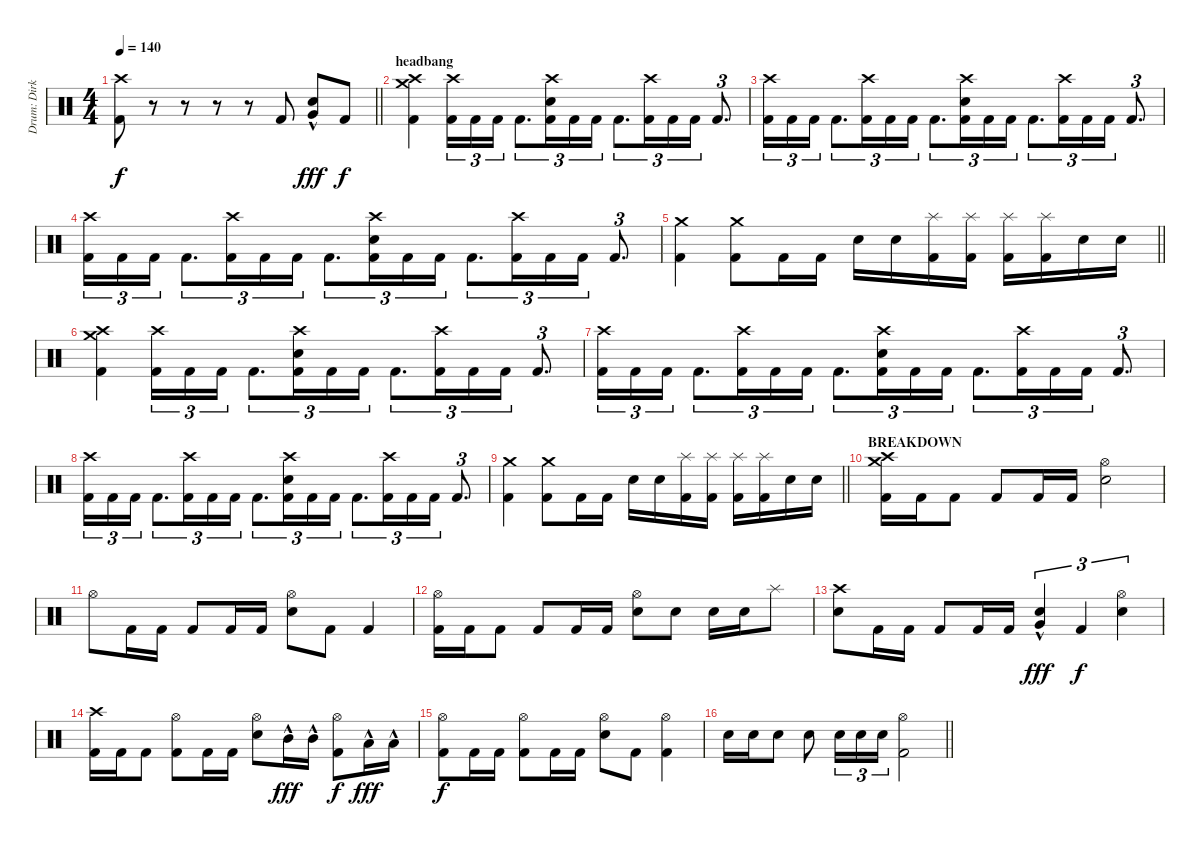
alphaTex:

\track ("Drum: Dirk" "Drum: Dirk") {instrument percussion}
\staff {score}
\articulation defaults
\ts (4 4)
\tempo 140
\clef neutral
\barLineRight lightlight
\ks c
("Crash high (hit)" "Kick (hit) 2").8{dy f} r.8 r.8 r.8 r.8 "Kick (hit) 2".8 ("Electric Snare (hit)" "Very Low Tom (hit)"{hac}).8{dy fff} "Kick (hit) 2".8{dy f} |
\section ("" "headbang")
("Crash high (hit)" "Crash medium (hit)" "Kick (hit) 2").4 ("Crash high (hit)" "Kick (hit) 2").16{tu (3 2)} "Kick (hit) 2".16{tu (3 2)} "Kick (hit) 2".16{tu (3 2)} "Kick (hit) 2".8{d tu (3 2)} ("Crash high (hit)" "Electric Snare (hit)" "Kick (hit) 2").16{tu (3 2)} "Kick (hit) 2".16{tu (3 2)} "Kick (hit) 2".16{tu (3 2)} "Kick (hit) 2".8{d tu (3 2)} ("Crash high (hit)" "Kick (hit) 2").16{tu (3 2)} "Kick (hit) 2".16{tu (3 2)} "Kick (hit) 2".16{tu (3 2)} "Kick (hit) 2".8{d tu (3 2)} |
("Crash high (hit)" "Kick (hit) 2").16{tu (3 2)} "Kick (hit) 2".16{tu (3 2)} "Kick (hit) 2".16{tu (3 2)} "Kick (hit) 2".8{d tu (3 2)} ("Crash high (hit)" "Kick (hit) 2").16{tu (3 2)} "Kick (hit) 2".16{tu (3 2)} "Kick (hit) 2".16{tu (3 2)} "Kick (hit) 2".8{d tu (3 2)} ("Crash high (hit)" "Electric Snare (hit)" "Kick (hit) 2").16{tu (3 2)} "Kick (hit) 2".16{tu (3 2)} "Kick (hit) 2".16{tu (3 2)} "Kick (hit) 2".8{d tu (3 2)} ("Crash high (hit)" "Kick (hit) 2").16{tu (3 2)} "Kick (hit) 2".16{tu (3 2)} "Kick (hit) 2".16{tu (3 2)} "Kick (hit) 2".8{d tu (3 2)} |
("Crash high (hit)" "Kick (hit) 2").16{tu (3 2)} "Kick (hit) 2".16{tu (3 2)} "Kick (hit) 2".16{tu (3 2)} "Kick (hit) 2".8{d tu (3 2)} ("Crash high (hit)" "Kick (hit) 2").16{tu (3 2)} "Kick (hit) 2".16{tu (3 2)} "Kick (hit) 2".16{tu (3 2)} "Kick (hit) 2".8{d tu (3 2)} ("Crash high (hit)" "Electric Snare (hit)" "Kick (hit) 2").16{tu (3 2)} "Kick (hit) 2".16{tu (3 2)} "Kick (hit) 2".16{tu (3 2)} "Kick (hit) 2".8{d tu (3 2)} ("Crash high (hit)" "Kick (hit) 2").16{tu (3 2)} "Kick (hit) 2".16{tu (3 2)} "Kick (hit) 2".16{tu (3 2)} "Kick (hit) 2".8{d tu (3 2)} |
\barLineRight lightlight
("Crash medium (hit)" "Kick (hit) 2").4 ("Crash medium (hit)" "Kick (hit) 2").8 "Kick (hit) 2".16 "Kick (hit) 2".16 "Electric Snare (hit)".16 "Electric Snare (hit)".16 ("Splash (hit)" "Kick (hit) 2").16 ("Splash (hit)" "Kick (hit) 2").16 ("Splash (hit)" "Kick (hit) 2").16 ("Splash (hit)" "Kick (hit) 2").16 "Electric Snare (hit)".16 "Electric Snare (hit)".16 |
("Crash high (hit)" "Crash medium (hit)" "Kick (hit) 2").4 ("Crash high (hit)" "Kick (hit) 2").16{tu (3 2)} "Kick (hit) 2".16{tu (3 2)} "Kick (hit) 2".16{tu (3 2)} "Kick (hit) 2".8{d tu (3 2)} ("Crash high (hit)" "Electric Snare (hit)" "Kick (hit) 2").16{tu (3 2)} "Kick (hit) 2".16{tu (3 2)} "Kick (hit) 2".16{tu (3 2)} "Kick (hit) 2".8{d tu (3 2)} ("Crash high (hit)" "Kick (hit) 2").16{tu (3 2)} "Kick (hit) 2".16{tu (3 2)} "Kick (hit) 2".16{tu (3 2)} "Kick (hit) 2".8{d tu (3 2)} |
("Crash high (hit)" "Kick (hit) 2").16{tu (3 2)} "Kick (hit) 2".16{tu (3 2)} "Kick (hit) 2".16{tu (3 2)} "Kick (hit) 2".8{d tu (3 2)} ("Crash high (hit)" "Kick (hit) 2").16{tu (3 2)} "Kick (hit) 2".16{tu (3 2)} "Kick (hit) 2".16{tu (3 2)} "Kick (hit) 2".8{d tu (3 2)} ("Crash high (hit)" "Electric Snare (hit)" "Kick (hit) 2").16{tu (3 2)} "Kick (hit) 2".16{tu (3 2)} "Kick (hit) 2".16{tu (3 2)} "Kick (hit) 2".8{d tu (3 2)} ("Crash high (hit)" "Kick (hit) 2").16{tu (3 2)} "Kick (hit) 2".16{tu (3 2)} "Kick (hit) 2".16{tu (3 2)} "Kick (hit) 2".8{d tu (3 2)} |
("Crash high (hit)" "Kick (hit) 2").16{tu (3 2)} "Kick (hit) 2".16{tu (3 2)} "Kick (hit) 2".16{tu (3 2)} "Kick (hit) 2".8{d tu (3 2)} ("Crash high (hit)" "Kick (hit) 2").16{tu (3 2)} "Kick (hit) 2".16{tu (3 2)} "Kick (hit) 2".16{tu (3 2)} "Kick (hit) 2".8{d tu (3 2)} ("Crash high (hit)" "Electric Snare (hit)" "Kick (hit) 2").16{tu (3 2)} "Kick (hit) 2".16{tu (3 2)} "Kick (hit) 2".16{tu (3 2)} "Kick (hit) 2".8{d tu (3 2)} ("Crash high (hit)" "Kick (hit) 2").16{tu (3 2)} "Kick (hit) 2".16{tu (3 2)} "Kick (hit) 2".16{tu (3 2)} "Kick (hit) 2".8{d tu (3 2)} |
\barLineRight lightlight
("Crash medium (hit)" "Kick (hit) 2").4 ("Crash medium (hit)" "Kick (hit) 2").8 "Kick (hit) 2".16 "Kick (hit) 2".16 "Electric Snare (hit)".16 "Electric Snare (hit)".16 ("Splash (hit)" "Kick (hit) 2").16 ("Splash (hit)" "Kick (hit) 2").16 ("Splash (hit)" "Kick (hit) 2").16 ("Splash (hit)" "Kick (hit) 2").16 "Electric Snare (hit)".16 "Electric Snare (hit)".16 |
\section ("" "BREAKDOWN")
("Crash medium (hit)" "Crash high (hit)" "Kick (hit) 2").16 "Kick (hit) 2".16 "Kick (hit) 2".8 "Kick (hit) 2".8 "Kick (hit) 2".16 "Kick (hit) 2".16 ("Hi-Hat (open)" "Electric Snare (hit)").2 |
"Hi-Hat (open)".8 "Kick (hit) 2".16 "Kick (hit) 2".16 "Kick (hit) 2".8 "Kick (hit) 2".16 "Kick (hit) 2".16 ("Hi-Hat (open)" "Electric Snare (hit)").8 "Kick (hit) 2".8 "Kick (hit) 2".4 |
("Hi-Hat (open)" "Kick (hit) 2").16 "Kick (hit) 2".16 "Kick (hit) 2".8 "Kick (hit) 2".8 "Kick (hit) 2".16 "Kick (hit) 2".16 ("Hi-Hat (open)" "Electric Snare (hit)").8 "Electric Snare (hit)".8 "Electric Snare (hit)".16 "Electric Snare (hit)".16 "Splash (hit)".8 |
("Crash high (hit)" "Electric Snare (hit)").8 "Kick (hit) 2".16 "Kick (hit) 2".16 "Kick (hit) 2".8 "Kick (hit) 2".16 "Kick (hit) 2".16 ("Electric Snare (hit)" "Very Low Tom (hit)"{hac}).4{tu (3 2) dy fff} "Kick (hit) 2".4{tu (3 2) dy f} ("Hi-Hat (open)" "Electric Snare (hit)").4{tu (3 2)} |
("Crash high (hit)" "Kick (hit) 2").16 "Kick (hit) 2".16 "Kick (hit) 2".8 ("Hi-Hat (open)" "Kick (hit) 2").8 "Kick (hit) 2".16 "Kick (hit) 2".16 ("Hi-Hat (open)" "Electric Snare (hit)").8 "Mid Tom (hit)"{hac}.16{dy fff} "Mid Tom (hit)"{hac}.16 ("Hi-Hat (open)" "Kick (hit) 2").8{dy f} "Low Tom (hit)"{hac}.16{dy fff} "Low Tom (hit)"{hac}.16 |
("Hi-Hat (open)" "Kick (hit) 2").8{dy f} "Kick (hit) 2".16 "Kick (hit) 2".16 ("Hi-Hat (open)" "Kick (hit) 2").8 "Kick (hit) 2".16 "Kick (hit) 2".16 ("Hi-Hat (open)" "Electric Snare (hit)").8 "Kick (hit) 2".8 ("Hi-Hat (open)" "Kick (hit) 2").4 |
\barLineRight lightlight "Electric Snare (hit)".16 "Electric Snare (hit)".16 "Electric Snare (hit)".8 "Electric Snare (hit)".8 "Electric Snare (hit)".16{tu (3 2)} "Electric Snare (hit)".16{tu (3 2)} "Electric Snare (hit)".16{tu (3 2)}
("Hi-Hat (open)" "Kick (hit) 2").2
